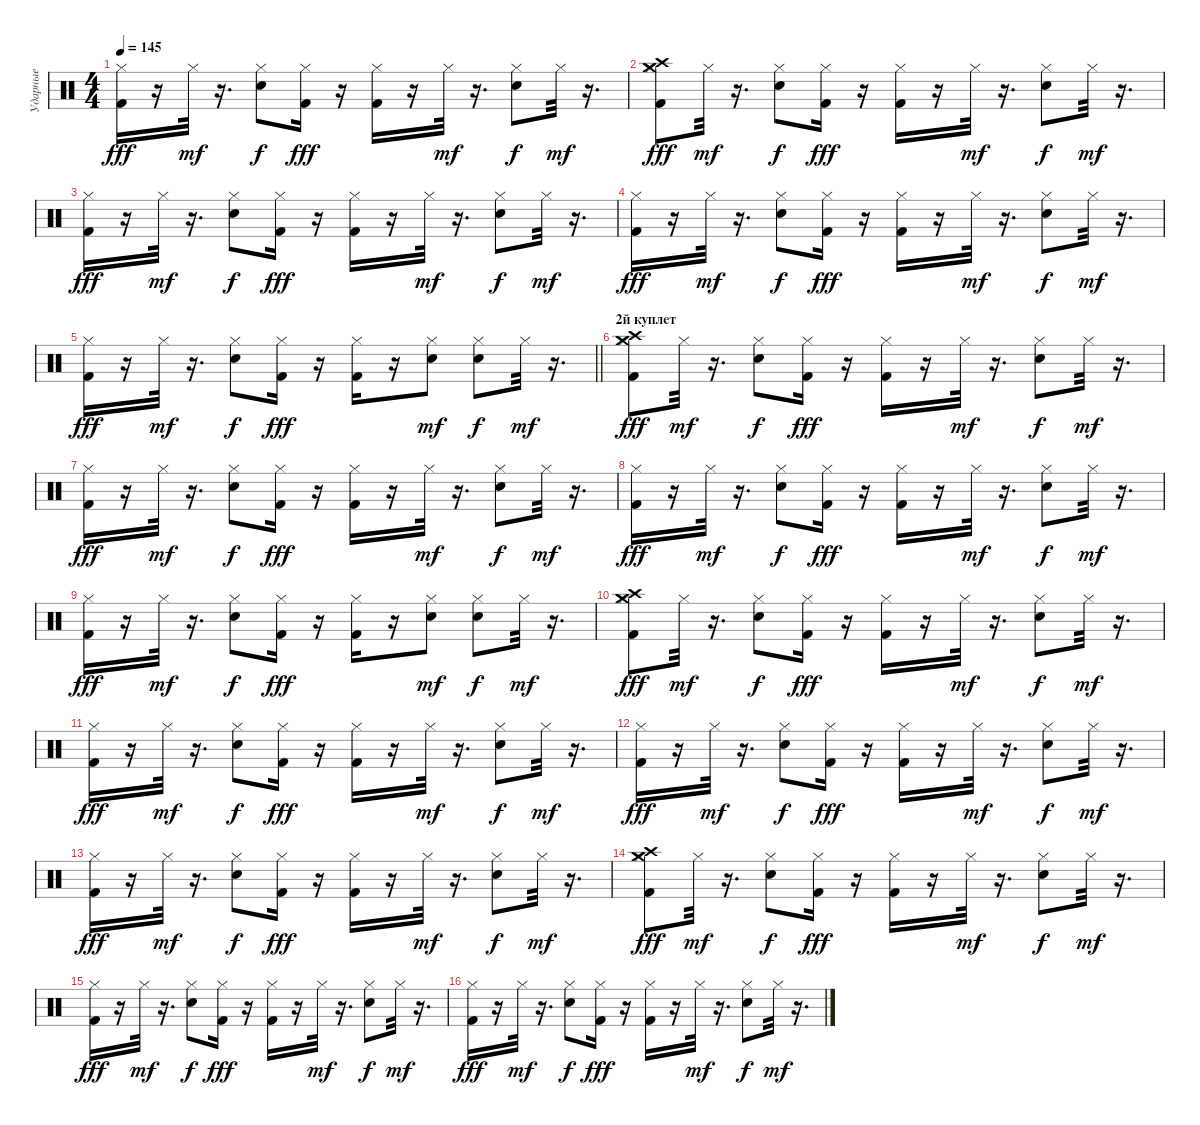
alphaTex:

\track ("Ударные" "Ударные") {instrument percussion}
\staff {score}
\articulation defaults
\ts (4 4)
\tempo 145
\clef neutral
\ks c
("Hi-Hat (closed)" "Kick (hit) 2").16{dy fff} r.16 "Hi-Hat (closed)".32{dy mf} r.16{d} ("Snare (hit) 2" "Hi-Hat (closed)").8{dy f} ("Hi-Hat (closed)" "Kick (hit) 2").16{dy fff} r.16 ("Hi-Hat (closed)" "Kick (hit) 2").16 r.16 "Hi-Hat (closed)".32{dy mf} r.16{d} ("Snare (hit) 2" "Hi-Hat (closed)").8{dy f} "Hi-Hat (closed)".32{dy mf} r.16{d} |
("Hi-Hat (closed)" "Crash high (hit)" "Crash medium (hit)" "Kick (hit) 2").8{dy fff} "Hi-Hat (closed)".32{dy mf} r.16{d} ("Snare (hit) 2" "Hi-Hat (closed)").8{dy f} ("Hi-Hat (closed)" "Kick (hit) 2").16{dy fff} r.16 ("Hi-Hat (closed)" "Kick (hit) 2").16 r.16 "Hi-Hat (closed)".32{dy mf} r.16{d} ("Snare (hit) 2" "Hi-Hat (closed)").8{dy f} "Hi-Hat (closed)".32{dy mf} r.16{d} |
("Hi-Hat (closed)" "Kick (hit) 2").16{dy fff} r.16 "Hi-Hat (closed)".32{dy mf} r.16{d} ("Snare (hit) 2" "Hi-Hat (closed)").8{dy f} ("Hi-Hat (closed)" "Kick (hit) 2").16{dy fff} r.16 ("Hi-Hat (closed)" "Kick (hit) 2").16 r.16 "Hi-Hat (closed)".32{dy mf} r.16{d} ("Snare (hit) 2" "Hi-Hat (closed)").8{dy f} "Hi-Hat (closed)".32{dy mf} r.16{d} |
("Hi-Hat (closed)" "Kick (hit) 2").16{dy fff} r.16 "Hi-Hat (closed)".32{dy mf} r.16{d} ("Snare (hit) 2" "Hi-Hat (closed)").8{dy f} ("Hi-Hat (closed)" "Kick (hit) 2").16{dy fff} r.16 ("Hi-Hat (closed)" "Kick (hit) 2").16 r.16 "Hi-Hat (closed)".32{dy mf} r.16{d} ("Snare (hit) 2" "Hi-Hat (closed)").8{dy f} "Hi-Hat (closed)".32{dy mf} r.16{d} |
\barLineRight lightlight
("Hi-Hat (closed)" "Kick (hit) 2").16{dy fff} r.16 "Hi-Hat (closed)".32{dy mf} r.16{d} ("Snare (hit) 2" "Hi-Hat (closed)").8{dy f} ("Hi-Hat (closed)" "Kick (hit) 2").16{dy fff} r.16 ("Hi-Hat (closed)" "Kick (hit) 2").16 r.16 ("Snare (hit) 2" "Hi-Hat (closed)").8{dy mf} ("Snare (hit) 2" "Hi-Hat (closed)").8{dy f} "Hi-Hat (closed)".32{dy mf} r.16{d} |
\section ("" "2й куплет")
("Hi-Hat (closed)" "Crash high (hit)" "Crash medium (hit)" "Kick (hit) 2").8{dy fff} "Hi-Hat (closed)".32{dy mf} r.16{d} ("Snare (hit) 2" "Hi-Hat (closed)").8{dy f} ("Hi-Hat (closed)" "Kick (hit) 2").16{dy fff} r.16 ("Hi-Hat (closed)" "Kick (hit) 2").16 r.16 "Hi-Hat (closed)".32{dy mf} r.16{d} ("Snare (hit) 2" "Hi-Hat (closed)").8{dy f} "Hi-Hat (closed)".32{dy mf} r.16{d} |
("Hi-Hat (closed)" "Kick (hit) 2").16{dy fff} r.16 "Hi-Hat (closed)".32{dy mf} r.16{d} ("Snare (hit) 2" "Hi-Hat (closed)").8{dy f} ("Hi-Hat (closed)" "Kick (hit) 2").16{dy fff} r.16 ("Hi-Hat (closed)" "Kick (hit) 2").16 r.16 "Hi-Hat (closed)".32{dy mf} r.16{d} ("Snare (hit) 2" "Hi-Hat (closed)").8{dy f} "Hi-Hat (closed)".32{dy mf} r.16{d} |
("Hi-Hat (closed)" "Kick (hit) 2").16{dy fff} r.16 "Hi-Hat (closed)".32{dy mf} r.16{d} ("Snare (hit) 2" "Hi-Hat (closed)").8{dy f} ("Hi-Hat (closed)" "Kick (hit) 2").16{dy fff} r.16 ("Hi-Hat (closed)" "Kick (hit) 2").16 r.16 "Hi-Hat (closed)".32{dy mf} r.16{d} ("Snare (hit) 2" "Hi-Hat (closed)").8{dy f} "Hi-Hat (closed)".32{dy mf} r.16{d} |
("Hi-Hat (closed)" "Kick (hit) 2").16{dy fff} r.16 "Hi-Hat (closed)".32{dy mf} r.16{d} ("Snare (hit) 2" "Hi-Hat (closed)").8{dy f} ("Hi-Hat (closed)" "Kick (hit) 2").16{dy fff} r.16 ("Hi-Hat (closed)" "Kick (hit) 2").16 r.16 ("Snare (hit) 2" "Hi-Hat (closed)").8{dy mf} ("Snare (hit) 2" "Hi-Hat (closed)").8{dy f} "Hi-Hat (closed)".32{dy mf} r.16{d} |
("Hi-Hat (closed)" "Crash high (hit)" "Crash medium (hit)" "Kick (hit) 2").8{dy fff} "Hi-Hat (closed)".32{dy mf} r.16{d} ("Snare (hit) 2" "Hi-Hat (closed)").8{dy f} ("Hi-Hat (closed)" "Kick (hit) 2").16{dy fff} r.16 ("Hi-Hat (closed)" "Kick (hit) 2").16 r.16 "Hi-Hat (closed)".32{dy mf} r.16{d} ("Snare (hit) 2" "Hi-Hat (closed)").8{dy f} "Hi-Hat (closed)".32{dy mf} r.16{d} |
("Hi-Hat (closed)" "Kick (hit) 2").16{dy fff} r.16 "Hi-Hat (closed)".32{dy mf} r.16{d} ("Snare (hit) 2" "Hi-Hat (closed)").8{dy f} ("Hi-Hat (closed)" "Kick (hit) 2").16{dy fff} r.16 ("Hi-Hat (closed)" "Kick (hit) 2").16 r.16 "Hi-Hat (closed)".32{dy mf} r.16{d} ("Snare (hit) 2" "Hi-Hat (closed)").8{dy f} "Hi-Hat (closed)".32{dy mf} r.16{d} |
("Hi-Hat (closed)" "Kick (hit) 2").16{dy fff} r.16 "Hi-Hat (closed)".32{dy mf} r.16{d} ("Snare (hit) 2" "Hi-Hat (closed)").8{dy f} ("Hi-Hat (closed)" "Kick (hit) 2").16{dy fff} r.16 ("Hi-Hat (closed)" "Kick (hit) 2").16 r.16 "Hi-Hat (closed)".32{dy mf} r.16{d} ("Snare (hit) 2" "Hi-Hat (closed)").8{dy f} "Hi-Hat (closed)".32{dy mf} r.16{d} |
("Hi-Hat (closed)" "Kick (hit) 2").16{dy fff} r.16 "Hi-Hat (closed)".32{dy mf} r.16{d} ("Snare (hit) 2" "Hi-Hat (closed)").8{dy f} ("Hi-Hat (closed)" "Kick (hit) 2").16{dy fff} r.16 ("Hi-Hat (closed)" "Kick (hit) 2").16 r.16 "Hi-Hat (closed)".32{dy mf} r.16{d} ("Snare (hit) 2" "Hi-Hat (closed)").8{dy f} "Hi-Hat (closed)".32{dy mf} r.16{d} |
("Hi-Hat (closed)" "Crash high (hit)" "Crash medium (hit)" "Kick (hit) 2").8{dy fff} "Hi-Hat (closed)".32{dy mf} r.16{d} ("Snare (hit) 2" "Hi-Hat (closed)").8{dy f} ("Hi-Hat (closed)" "Kick (hit) 2").16{dy fff} r.16 ("Hi-Hat (closed)" "Kick (hit) 2").16 r.16 "Hi-Hat (closed)".32{dy mf} r.16{d} ("Snare (hit) 2" "Hi-Hat (closed)").8{dy f} "Hi-Hat (closed)".32{dy mf} r.16{d} |
("Hi-Hat (closed)" "Kick (hit) 2").16{dy fff} r.16 "Hi-Hat (closed)".32{dy mf} r.16{d} ("Snare (hit) 2" "Hi-Hat (closed)").8{dy f} ("Hi-Hat (closed)" "Kick (hit) 2").16{dy fff} r.16 ("Hi-Hat (closed)" "Kick (hit) 2").16 r.16 "Hi-Hat (closed)".32{dy mf} r.16{d} ("Snare (hit) 2" "Hi-Hat (closed)").8{dy f} "Hi-Hat (closed)".32{dy mf} r.16{d} |
("Hi-Hat (closed)" "Kick (hit) 2").16{dy fff} r.16 "Hi-Hat (closed)".32{dy mf} r.16{d} ("Snare (hit) 2" "Hi-Hat (closed)").8{dy f} ("Hi-Hat (closed)" "Kick (hit) 2").16{dy fff} r.16 ("Hi-Hat (closed)" "Kick (hit) 2").16 r.16 "Hi-Hat (closed)".32{dy mf} r.16{d} ("Snare (hit) 2" "Hi-Hat (closed)").8{dy f} "Hi-Hat (closed)".32{dy mf} r.16{d}
